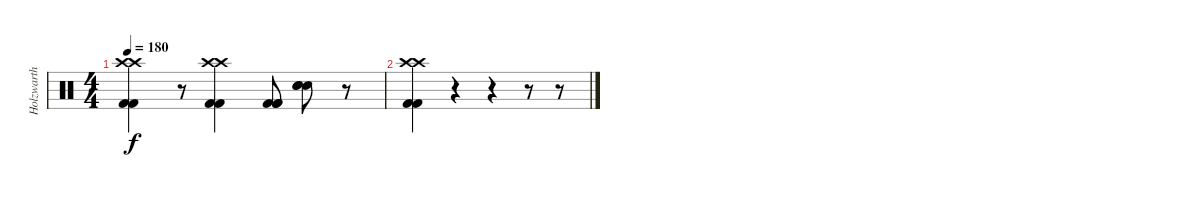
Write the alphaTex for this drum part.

\track ("Holzwarth" "Holzwarth") {instrument percussion}
\staff {score}
\articulation defaults
\ts (4 4)
\tempo 180
\clef neutral
\ks c
("Kick (hit) 2" "Kick (hit) 2" "Crash high (hit)" "Crash high (hit)").4{dy f} r.8 ("Kick (hit) 2" "Kick (hit) 2" "Crash high (hit)" "Crash high (hit)").4 ("Kick (hit) 2" "Kick (hit) 2" "Kick (hit) 2").8 ("Snare (hit) 2" "Snare (hit) 2" "Snare (hit) 2").8 r.8 |
("Kick (hit) 2" "Kick (hit) 2" "Crash high (hit)" "Crash high (hit)").4 r.4 r.4 r.8 r.8
